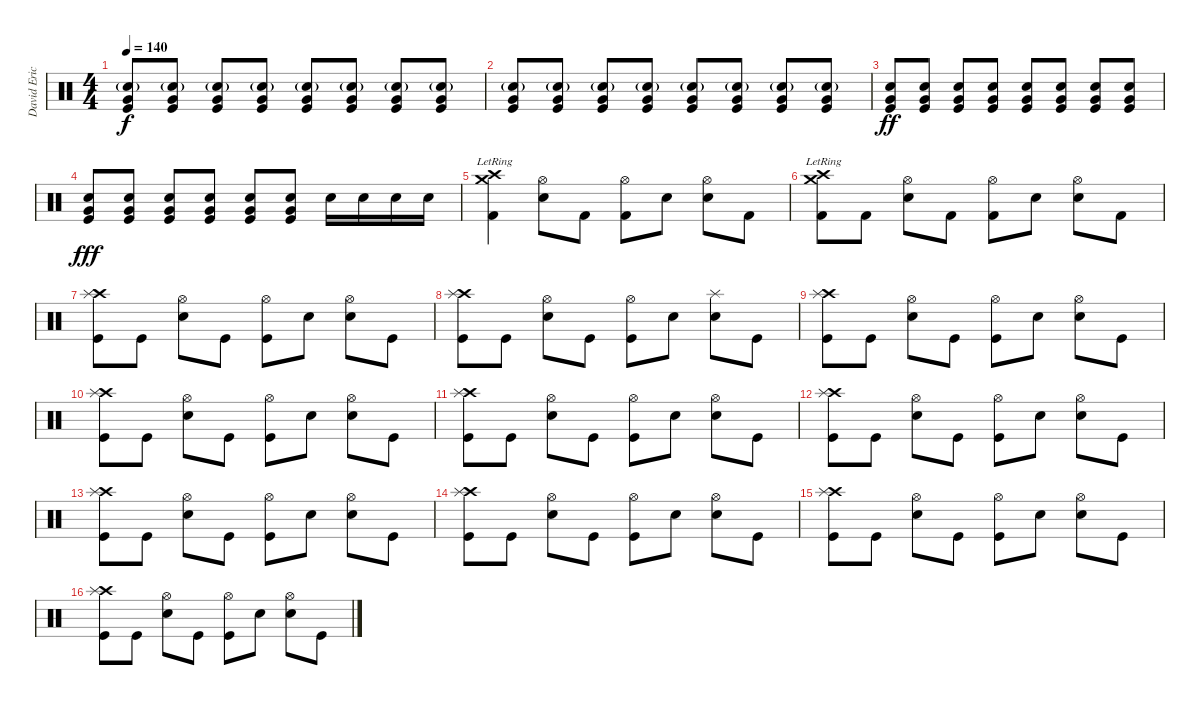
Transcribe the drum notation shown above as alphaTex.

\track ("David Eric Grohl" "David Eric") {instrument percussion}
\staff {score}
\articulation defaults
\ts (4 4)
\tempo 140
\clef neutral
\ks c
("Electric Snare (hit)"{g} "Very Low Tom (hit)" "Kick (hit)").8{dy f} ("Electric Snare (hit)"{g} "Very Low Tom (hit)" "Kick (hit)").8 ("Electric Snare (hit)"{g} "Very Low Tom (hit)" "Kick (hit)").8 ("Electric Snare (hit)"{g} "Very Low Tom (hit)" "Kick (hit)").8 ("Electric Snare (hit)"{g} "Very Low Tom (hit)" "Kick (hit)").8 ("Electric Snare (hit)"{g} "Very Low Tom (hit)" "Kick (hit)").8 ("Electric Snare (hit)"{g} "Very Low Tom (hit)" "Kick (hit)").8 ("Electric Snare (hit)"{g} "Very Low Tom (hit)" "Kick (hit)").8 |
("Electric Snare (hit)"{g} "Very Low Tom (hit)" "Kick (hit)").8 ("Electric Snare (hit)"{g} "Very Low Tom (hit)" "Kick (hit)").8 ("Electric Snare (hit)"{g} "Very Low Tom (hit)" "Kick (hit)").8 ("Electric Snare (hit)"{g} "Very Low Tom (hit)" "Kick (hit)").8 ("Electric Snare (hit)"{g} "Very Low Tom (hit)" "Kick (hit)").8 ("Electric Snare (hit)"{g} "Very Low Tom (hit)" "Kick (hit)").8 ("Electric Snare (hit)"{g} "Very Low Tom (hit)" "Kick (hit)").8 ("Electric Snare (hit)"{g} "Very Low Tom (hit)" "Kick (hit)").8 |
("Electric Snare (hit)" "Very Low Tom (hit)" "Kick (hit)").8{dy ff} ("Electric Snare (hit)" "Very Low Tom (hit)" "Kick (hit)").8 ("Electric Snare (hit)" "Very Low Tom (hit)" "Kick (hit)").8 ("Electric Snare (hit)" "Very Low Tom (hit)" "Kick (hit)").8 ("Electric Snare (hit)" "Very Low Tom (hit)" "Kick (hit)").8 ("Electric Snare (hit)" "Very Low Tom (hit)" "Kick (hit)").8 ("Electric Snare (hit)" "Very Low Tom (hit)" "Kick (hit)").8 ("Electric Snare (hit)" "Very Low Tom (hit)" "Kick (hit)").8 |
("Electric Snare (hit)" "Very Low Tom (hit)" "Kick (hit)").8{dy fff} ("Electric Snare (hit)" "Very Low Tom (hit)" "Kick (hit)").8 ("Electric Snare (hit)" "Very Low Tom (hit)" "Kick (hit)").8 ("Electric Snare (hit)" "Very Low Tom (hit)" "Kick (hit)").8 ("Electric Snare (hit)" "Very Low Tom (hit)" "Kick (hit)").8 ("Electric Snare (hit)" "Very Low Tom (hit)" "Kick (hit)").8 "Electric Snare (hit)".16 "Electric Snare (hit)".16 "Electric Snare (hit)".16 "Electric Snare (hit)".16 |
("Crash high (hit)"{lr} "Crash medium (hit)"{lr} "Kick (hit) 2").4 ("Hi-Hat (open)" "Electric Snare (hit)").8 "Kick (hit) 2".8 ("Hi-Hat (open)" "Kick (hit) 2").8 "Electric Snare (hit)".8 ("Hi-Hat (open)" "Electric Snare (hit)").8 "Kick (hit) 2".8 |
("Crash high (hit)"{lr} "Crash medium (hit)"{lr} "Kick (hit) 2").8 "Kick (hit) 2".8 ("Hi-Hat (open)" "Electric Snare (hit)").8 "Kick (hit) 2".8 ("Hi-Hat (open)" "Kick (hit) 2").8 "Electric Snare (hit)".8 ("Hi-Hat (open)" "Electric Snare (hit)").8 "Kick (hit) 2".8 |
("Crash high (hit)" "Splash (hit)" "Kick (hit)").8 "Kick (hit)".8 ("Hi-Hat (open)" "Electric Snare (hit)").8 "Kick (hit)".8 ("Hi-Hat (open)" "Kick (hit)").8 "Electric Snare (hit)".8 ("Hi-Hat (open)" "Electric Snare (hit)").8 "Kick (hit)".8 |
("Crash high (hit)" "Splash (hit)" "Kick (hit)").8 "Kick (hit)".8 ("Hi-Hat (open)" "Electric Snare (hit)").8 "Kick (hit)".8 ("Hi-Hat (open)" "Kick (hit)").8 "Electric Snare (hit)".8 ("Splash (hit)" "Electric Snare (hit)").8 "Kick (hit)".8 |
("Crash high (hit)" "Splash (hit)" "Kick (hit)").8 "Kick (hit)".8 ("Hi-Hat (open)" "Electric Snare (hit)").8 "Kick (hit)".8 ("Hi-Hat (open)" "Kick (hit)").8 "Electric Snare (hit)".8 ("Hi-Hat (open)" "Electric Snare (hit)").8 "Kick (hit)".8 |
("Crash high (hit)" "Splash (hit)" "Kick (hit)").8 "Kick (hit)".8 ("Hi-Hat (open)" "Electric Snare (hit)").8 "Kick (hit)".8 ("Hi-Hat (open)" "Kick (hit)").8 "Electric Snare (hit)".8 ("Hi-Hat (open)" "Electric Snare (hit)").8 "Kick (hit)".8 |
("Crash high (hit)" "Splash (hit)" "Kick (hit)").8 "Kick (hit)".8 ("Hi-Hat (open)" "Electric Snare (hit)").8 "Kick (hit)".8 ("Hi-Hat (open)" "Kick (hit)").8 "Electric Snare (hit)".8 ("Hi-Hat (open)" "Electric Snare (hit)").8 "Kick (hit)".8 |
("Crash high (hit)" "Splash (hit)" "Kick (hit)").8 "Kick (hit)".8 ("Hi-Hat (open)" "Electric Snare (hit)").8 "Kick (hit)".8 ("Hi-Hat (open)" "Kick (hit)").8 "Electric Snare (hit)".8 ("Hi-Hat (open)" "Electric Snare (hit)").8 "Kick (hit)".8 |
("Crash high (hit)" "Splash (hit)" "Kick (hit)").8 "Kick (hit)".8 ("Hi-Hat (open)" "Electric Snare (hit)").8 "Kick (hit)".8 ("Hi-Hat (open)" "Kick (hit)").8 "Electric Snare (hit)".8 ("Hi-Hat (open)" "Electric Snare (hit)").8 "Kick (hit)".8 |
("Crash high (hit)" "Splash (hit)" "Kick (hit)").8 "Kick (hit)".8 ("Hi-Hat (open)" "Electric Snare (hit)").8 "Kick (hit)".8 ("Hi-Hat (open)" "Kick (hit)").8 "Electric Snare (hit)".8 ("Hi-Hat (open)" "Electric Snare (hit)").8 "Kick (hit)".8 |
("Crash high (hit)" "Splash (hit)" "Kick (hit)").8 "Kick (hit)".8 ("Hi-Hat (open)" "Electric Snare (hit)").8 "Kick (hit)".8 ("Hi-Hat (open)" "Kick (hit)").8 "Electric Snare (hit)".8 ("Hi-Hat (open)" "Electric Snare (hit)").8 "Kick (hit)".8 |
("Crash high (hit)" "Splash (hit)" "Kick (hit)").8 "Kick (hit)".8 ("Hi-Hat (open)" "Electric Snare (hit)").8 "Kick (hit)".8 ("Hi-Hat (open)" "Kick (hit)").8 "Electric Snare (hit)".8 ("Hi-Hat (open)" "Electric Snare (hit)").8 "Kick (hit)".8
